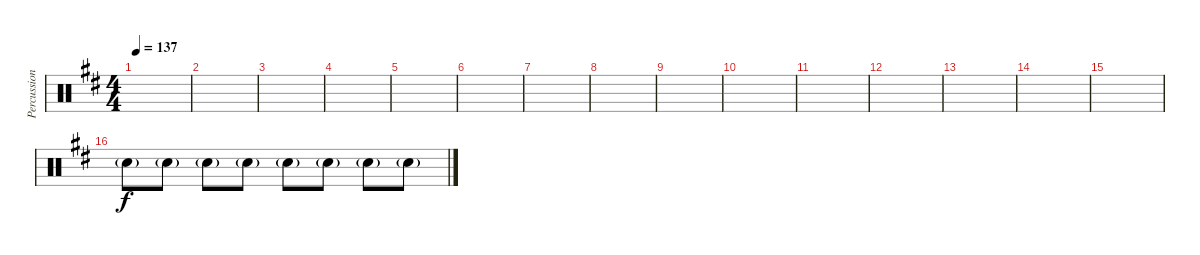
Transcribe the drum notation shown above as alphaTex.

\track ("Percussion" "Percussion") {instrument percussion}
\staff {score}
\articulation defaults
\ts (4 4)
\tempo 137
\clef neutral
\ks d
|
|
|
|
|
|
|
|
|
|
|
|
|
|
|
"Snare (hit) 2"{g}.8 "Snare (hit) 2"{g}.8 "Snare (hit) 2"{g}.8 "Snare (hit) 2"{g}.8 "Snare (hit) 2"{g}.8 "Snare (hit) 2"{g}.8 "Snare (hit) 2"{g}.8 "Snare (hit) 2"{g}.8
